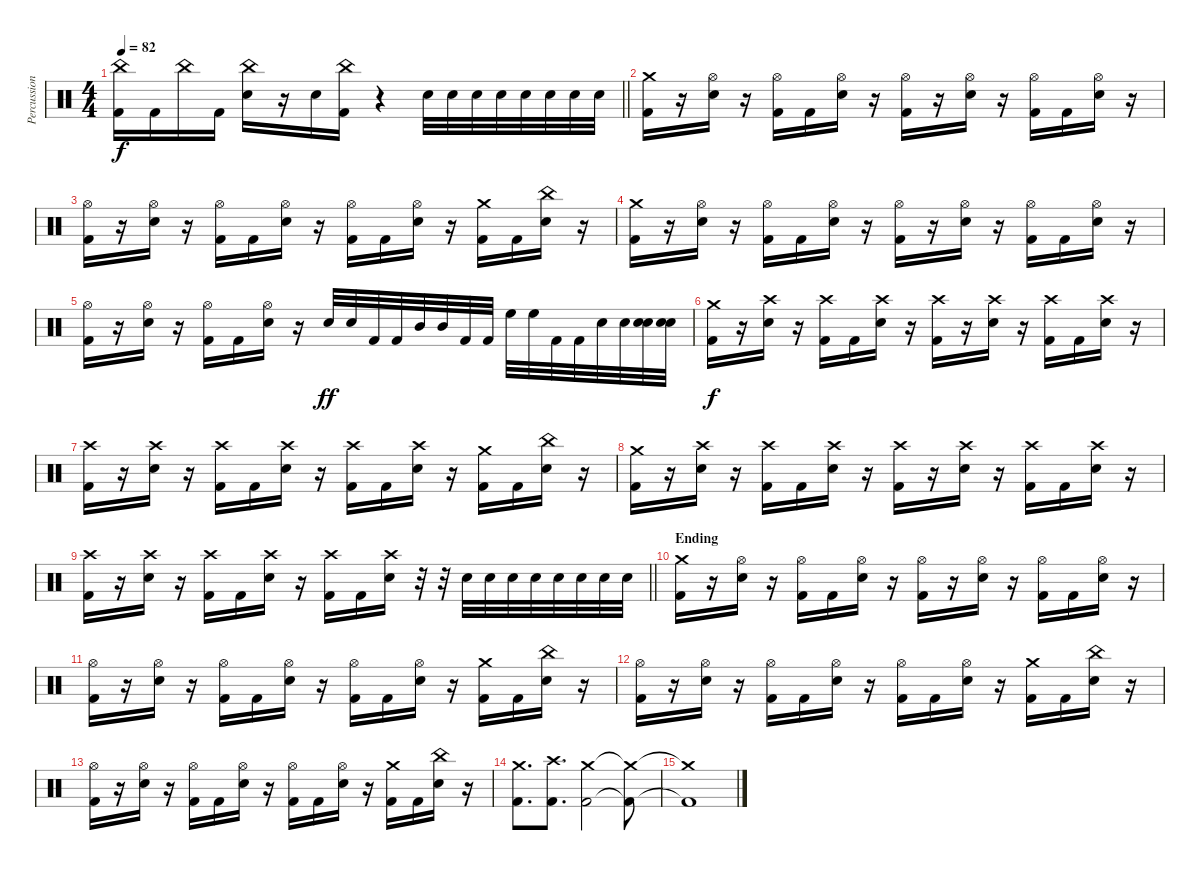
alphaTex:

\track ("Percussion" "Percussion") {solo instrument percussion}
\staff {score}
\articulation defaults
\ts (4 4)
\tempo 82
\clef neutral
\barLineRight lightlight
\ks c
("China (hit)" "Kick (hit) 2").16{dy f} "Kick (hit) 2".16 "China (hit)".16 "Kick (hit) 2".16 ("China (hit)" "Electric Snare (hit)").16 r.16 "Electric Snare (hit)".16 ("China (hit)" "Kick (hit) 2").16 r.4 "Electric Snare (hit)".32 "Electric Snare (hit)".32 "Electric Snare (hit)".32 "Electric Snare (hit)".32 "Electric Snare (hit)".32 "Electric Snare (hit)".32 "Electric Snare (hit)".32 "Electric Snare (hit)".32 |
("Crash medium (hit)" "Kick (hit) 2").16 r.16 ("Hi-Hat (open)" "Electric Snare (hit)").16 r.16 ("Hi-Hat (open)" "Kick (hit) 2").16 "Kick (hit) 2".16 ("Hi-Hat (open)" "Electric Snare (hit)").16 r.16 ("Hi-Hat (open)" "Kick (hit) 2").16 r.16 ("Hi-Hat (open)" "Electric Snare (hit)").16 r.16 ("Hi-Hat (open)" "Kick (hit) 2").16 "Kick (hit) 2".16 ("Hi-Hat (open)" "Electric Snare (hit)").16 r.16 |
("Hi-Hat (open)" "Kick (hit) 2").16 r.16 ("Hi-Hat (open)" "Electric Snare (hit)").16 r.16 ("Hi-Hat (open)" "Kick (hit) 2").16 "Kick (hit) 2".16 ("Hi-Hat (open)" "Electric Snare (hit)").16 r.16 ("Hi-Hat (open)" "Kick (hit) 2").16 "Kick (hit) 2".16 ("Hi-Hat (open)" "Electric Snare (hit)").16 r.16 ("Crash medium (hit)" "Kick (hit) 2").16 "Kick (hit) 2".16 ("China (hit)" "Electric Snare (hit)").16 r.16 |
("Crash medium (hit)" "Kick (hit) 2").16 r.16 ("Hi-Hat (open)" "Electric Snare (hit)").16 r.16 ("Hi-Hat (open)" "Kick (hit) 2").16 "Kick (hit) 2".16 ("Hi-Hat (open)" "Electric Snare (hit)").16 r.16 ("Hi-Hat (open)" "Kick (hit) 2").16 r.16 ("Hi-Hat (open)" "Electric Snare (hit)").16 r.16 ("Hi-Hat (open)" "Kick (hit) 2").16 "Kick (hit) 2".16 ("Hi-Hat (open)" "Electric Snare (hit)").16 r.16 |
("Hi-Hat (open)" "Kick (hit) 2").16 r.16 ("Hi-Hat (open)" "Electric Snare (hit)").16 r.16 ("Hi-Hat (open)" "Kick (hit) 2").16 "Kick (hit) 2".16 ("Hi-Hat (open)" "Electric Snare (hit)").16 r.16 "Electric Snare (hit)".32{dy ff} "Electric Snare (hit)".32 "Kick (hit) 2".32 "Kick (hit) 2".32 "Mid Tom (hit)".32 "Mid Tom (hit)".32 "Kick (hit) 2".32 "Kick (hit) 2".32 "High Floor Tom (hit)".32 "High Floor Tom (hit)".32 "Kick (hit) 2".32 "Kick (hit) 2".32 "Electric Snare (hit)".32 "Electric Snare (hit)".32 ("Electric Snare (hit)" "Electric Snare (hit)").32 ("Electric Snare (hit)" "Electric Snare (hit)").32 |
("Crash medium (hit)" "Kick (hit) 2").16{dy f} r.16 ("Crash high (hit)" "Electric Snare (hit)").16 r.16 ("Crash high (hit)" "Kick (hit) 2").16 "Kick (hit) 2".16 ("Crash high (hit)" "Electric Snare (hit)").16 r.16 ("Crash high (hit)" "Kick (hit) 2").16 r.16 ("Crash high (hit)" "Electric Snare (hit)").16 r.16 ("Crash high (hit)" "Kick (hit) 2").16 "Kick (hit) 2".16 ("Crash high (hit)" "Electric Snare (hit)").16 r.16 |
("Crash high (hit)" "Kick (hit) 2").16 r.16 ("Crash high (hit)" "Electric Snare (hit)").16 r.16 ("Crash high (hit)" "Kick (hit) 2").16 "Kick (hit) 2".16 ("Crash high (hit)" "Electric Snare (hit)").16 r.16 ("Crash high (hit)" "Kick (hit) 2").16 "Kick (hit) 2".16 ("Crash high (hit)" "Electric Snare (hit)").16 r.16 ("Crash medium (hit)" "Kick (hit) 2").16 "Kick (hit) 2".16 ("China (hit)" "Electric Snare (hit)").16 r.16 |
("Crash medium (hit)" "Kick (hit) 2").16 r.16 ("Crash high (hit)" "Electric Snare (hit)").16 r.16 ("Crash high (hit)" "Kick (hit) 2").16 "Kick (hit) 2".16 ("Crash high (hit)" "Electric Snare (hit)").16 r.16 ("Crash high (hit)" "Kick (hit) 2").16 r.16 ("Crash high (hit)" "Electric Snare (hit)").16 r.16 ("Crash high (hit)" "Kick (hit) 2").16 "Kick (hit) 2".16 ("Crash high (hit)" "Electric Snare (hit)").16 r.16 |
\barLineRight lightlight
("Crash high (hit)" "Kick (hit) 2").16 r.16 ("Crash high (hit)" "Electric Snare (hit)").16 r.16 ("Crash high (hit)" "Kick (hit) 2").16 "Kick (hit) 2".16 ("Crash high (hit)" "Electric Snare (hit)").16 r.16 ("Crash high (hit)" "Kick (hit) 2").16 "Kick (hit) 2".16 ("Crash high (hit)" "Electric Snare (hit)").16 r.32 r.32 "Electric Snare (hit)".32 "Electric Snare (hit)".32 "Electric Snare (hit)".32 "Electric Snare (hit)".32 "Electric Snare (hit)".32 "Electric Snare (hit)".32 "Electric Snare (hit)".32 "Electric Snare (hit)".32 |
\section ("" "Ending")
("Crash medium (hit)" "Kick (hit) 2").16 r.16 ("Hi-Hat (open)" "Electric Snare (hit)").16 r.16 ("Hi-Hat (open)" "Kick (hit) 2").16 "Kick (hit) 2".16 ("Hi-Hat (open)" "Electric Snare (hit)").16 r.16 ("Hi-Hat (open)" "Kick (hit) 2").16 r.16 ("Hi-Hat (open)" "Electric Snare (hit)").16 r.16 ("Hi-Hat (open)" "Kick (hit) 2").16 "Kick (hit) 2".16 ("Hi-Hat (open)" "Electric Snare (hit)").16 r.16 |
("Hi-Hat (open)" "Kick (hit) 2").16 r.16 ("Hi-Hat (open)" "Electric Snare (hit)").16 r.16 ("Hi-Hat (open)" "Kick (hit) 2").16 "Kick (hit) 2".16 ("Hi-Hat (open)" "Electric Snare (hit)").16 r.16 ("Hi-Hat (open)" "Kick (hit) 2").16 "Kick (hit) 2".16 ("Hi-Hat (open)" "Electric Snare (hit)").16 r.16 ("Crash medium (hit)" "Kick (hit) 2").16 "Kick (hit) 2".16 ("China (hit)" "Electric Snare (hit)").16 r.16 |
("Hi-Hat (open)" "Kick (hit) 2").16 r.16 ("Hi-Hat (open)" "Electric Snare (hit)").16 r.16 ("Hi-Hat (open)" "Kick (hit) 2").16 "Kick (hit) 2".16 ("Hi-Hat (open)" "Electric Snare (hit)").16 r.16 ("Hi-Hat (open)" "Kick (hit) 2").16 "Kick (hit) 2".16 ("Hi-Hat (open)" "Electric Snare (hit)").16 r.16 ("Crash medium (hit)" "Kick (hit) 2").16 "Kick (hit) 2".16 ("China (hit)" "Electric Snare (hit)").16 r.16 |
("Hi-Hat (open)" "Kick (hit) 2").16 r.16 ("Hi-Hat (open)" "Electric Snare (hit)").16 r.16 ("Hi-Hat (open)" "Kick (hit) 2").16 "Kick (hit) 2".16 ("Hi-Hat (open)" "Electric Snare (hit)").16 r.16 ("Hi-Hat (open)" "Kick (hit) 2").16 "Kick (hit) 2".16 ("Hi-Hat (open)" "Electric Snare (hit)").16 r.16 ("Crash medium (hit)" "Kick (hit) 2").16 "Kick (hit) 2".16 ("China (hit)" "Electric Snare (hit)").16 r.16 |
("Crash medium (hit)" "Kick (hit) 2").8{d} ("Crash high (hit)" "Kick (hit) 2").8{d} ("Crash medium (hit)" "Kick (hit) 2").2 ("Crash medium (hit)"{t} "Kick (hit) 2"{t}).8{volume 0} |
("Crash medium (hit)"{t} "Kick (hit) 2"{t}).1
